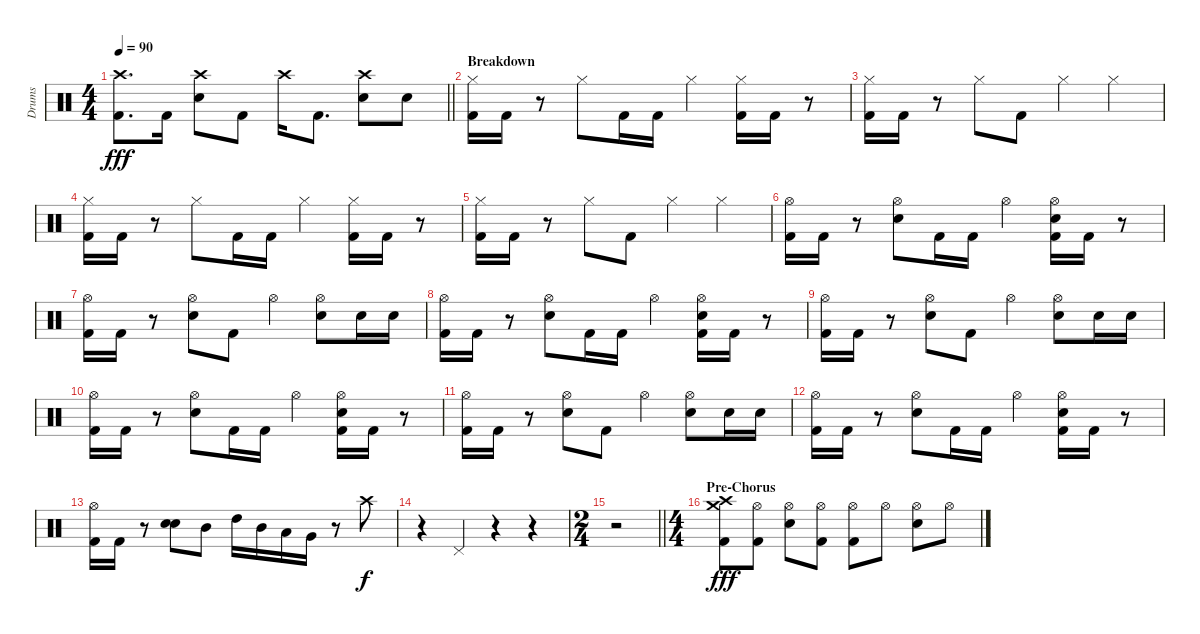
\track ("Drums" "Drums") {instrument percussion}
\staff {score}
\articulation defaults
\ts (4 4)
\tempo 90
\clef neutral
\barLineRight lightlight
\ks c
("Crash high (hit)" "Kick (hit) 2").8{d dy fff} "Kick (hit) 2".16 ("Crash high (hit)" "Electric Snare (hit)").8 "Kick (hit) 2".8 "Crash high (hit)".16 "Kick (hit) 2".8{d} ("Crash high (hit)" "Electric Snare (hit)").8 "Electric Snare (hit)".8 |
\section ("" "Breakdown")
("Hi-Hat (closed)" "Kick (hit) 2").16 "Kick (hit) 2".16 r.8 "Hi-Hat (closed)".8 "Kick (hit) 2".16 "Kick (hit) 2".16 "Hi-Hat (closed)".4 ("Hi-Hat (closed)" "Kick (hit) 2").16 "Kick (hit) 2".16 r.8 |
("Hi-Hat (closed)" "Kick (hit) 2").16 "Kick (hit) 2".16 r.8 "Hi-Hat (closed)".8 "Kick (hit) 2".8 "Hi-Hat (closed)".4 "Hi-Hat (closed)".4 |
("Hi-Hat (closed)" "Kick (hit) 2").16 "Kick (hit) 2".16 r.8 "Hi-Hat (closed)".8 "Kick (hit) 2".16 "Kick (hit) 2".16 "Hi-Hat (closed)".4 ("Hi-Hat (closed)" "Kick (hit) 2").16 "Kick (hit) 2".16 r.8 |
("Hi-Hat (closed)" "Kick (hit) 2").16 "Kick (hit) 2".16 r.8 "Hi-Hat (closed)".8 "Kick (hit) 2".8 "Hi-Hat (closed)".4 "Hi-Hat (closed)".4 |
("Hi-Hat (open)" "Kick (hit) 2").16 "Kick (hit) 2".16 r.8 ("Hi-Hat (open)" "Electric Snare (hit)").8 "Kick (hit) 2".16 "Kick (hit) 2".16 "Hi-Hat (open)".4 ("Hi-Hat (open)" "Electric Snare (hit)" "Kick (hit) 2").16 "Kick (hit) 2".16 r.8 |
("Hi-Hat (open)" "Kick (hit) 2").16 "Kick (hit) 2".16 r.8 ("Hi-Hat (open)" "Electric Snare (hit)").8 "Kick (hit) 2".8 "Hi-Hat (open)".4 ("Hi-Hat (open)" "Electric Snare (hit)").8 "Electric Snare (hit)".16 "Electric Snare (hit)".16 |
("Hi-Hat (open)" "Kick (hit) 2").16 "Kick (hit) 2".16 r.8 ("Hi-Hat (open)" "Electric Snare (hit)").8 "Kick (hit) 2".16 "Kick (hit) 2".16 "Hi-Hat (open)".4 ("Hi-Hat (open)" "Electric Snare (hit)" "Kick (hit) 2").16 "Kick (hit) 2".16 r.8 |
("Hi-Hat (open)" "Kick (hit) 2").16 "Kick (hit) 2".16 r.8 ("Hi-Hat (open)" "Electric Snare (hit)").8 "Kick (hit) 2".8 "Hi-Hat (open)".4 ("Hi-Hat (open)" "Electric Snare (hit)").8 "Electric Snare (hit)".16 "Electric Snare (hit)".16 |
("Hi-Hat (open)" "Kick (hit) 2").16 "Kick (hit) 2".16 r.8 ("Hi-Hat (open)" "Electric Snare (hit)").8 "Kick (hit) 2".16 "Kick (hit) 2".16 "Hi-Hat (open)".4 ("Hi-Hat (open)" "Electric Snare (hit)" "Kick (hit) 2").16 "Kick (hit) 2".16 r.8 |
("Hi-Hat (open)" "Kick (hit) 2").16 "Kick (hit) 2".16 r.8 ("Hi-Hat (open)" "Electric Snare (hit)").8 "Kick (hit) 2".8 "Hi-Hat (open)".4 ("Hi-Hat (open)" "Electric Snare (hit)").8 "Electric Snare (hit)".16 "Electric Snare (hit)".16 |
("Hi-Hat (open)" "Kick (hit) 2").16 "Kick (hit) 2".16 r.8 ("Hi-Hat (open)" "Electric Snare (hit)").8 "Kick (hit) 2".16 "Kick (hit) 2".16 "Hi-Hat (open)".4 ("Hi-Hat (open)" "Electric Snare (hit)" "Kick (hit) 2").16 "Kick (hit) 2".16 r.8 |
("Hi-Hat (open)" "Kick (hit) 2").16 "Kick (hit) 2".16 r.8 ("Electric Snare (hit)" "Electric Snare (hit)").8 "Mid Tom (hit)".8 "High Tom (hit)".16 "Mid Tom (hit)".16 "Low Tom (hit)".16 "Very Low Tom (hit)".16 r.8 "Crash high (hit)".8{dy f} |
r.4 "Pedal Hi-Hat (hit)".4 r.4 r.4 |
\ts (2 4)
\barLineRight lightlight
r.2 |
\ts (4 4)
\section ("" "Pre-Chorus")
("Crash high (hit)" "Crash medium (hit)" "Kick (hit) 2").8{dy fff} ("Hi-Hat (open)" "Kick (hit) 2").8 ("Hi-Hat (open)" "Electric Snare (hit)").8 ("Hi-Hat (open)" "Kick (hit) 2").8 ("Hi-Hat (open)" "Kick (hit) 2").8 "Hi-Hat (open)".8 ("Hi-Hat (open)" "Electric Snare (hit)").8 "Hi-Hat (open)".8
